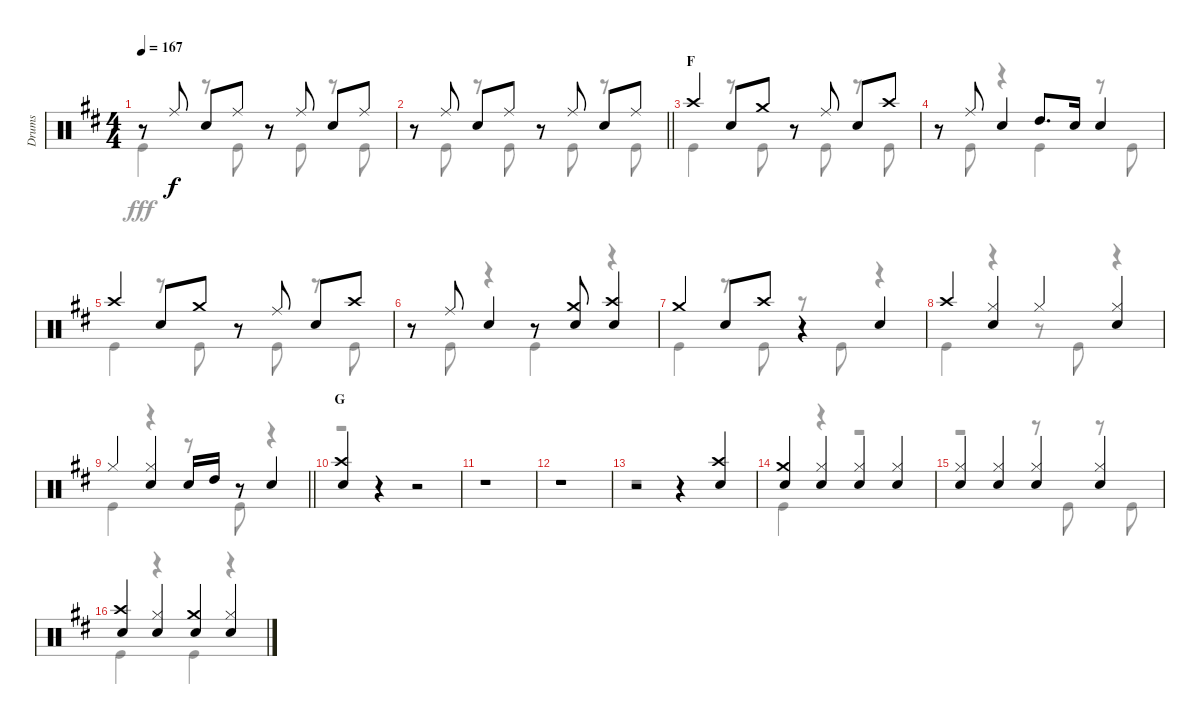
\track ("Drums" "Drums") {instrument percussion}
\staff {score}
\articulation defaults
\voice
\ts (4 4)
\tempo 167
\clef neutral
\ks d
r.8{dy f} "Ride (middle)".8 "Snare (hit) 2".8 "Ride (middle)".8 r.8 "Ride (middle)".8 "Snare (hit) 2".8 "Ride (middle)".8 |
\barLineRight lightlight
r.8 "Ride (middle)".8 "Snare (hit) 2".8 "Ride (middle)".8 r.8 "Ride (middle)".8 "Snare (hit) 2".8 "Ride (middle)".8 |
\section ("" "F")
"Crash high (hit)".4 "Snare (hit) 2".8 "Crash medium (hit)".8 r.8 "Ride (middle)".8 "Snare (hit) 2".8 "Crash high (hit)".8 |
r.8 "Ride (middle)".8 "Snare (hit) 2".4 "High Tom (hit)".8{d} "Snare (hit) 2".16 "Snare (hit) 2".4 |
"Crash high (hit)".4 "Snare (hit) 2".8 "Crash medium (hit)".8 r.8 "Ride (middle)".8 "Snare (hit) 2".8 "Crash high (hit)".8 |
r.8 "Ride (middle)".8 "Snare (hit) 2".4 r.8 ("Crash medium (hit)" "Snare (hit) 2").8 ("Crash high (hit)" "Snare (hit) 2").4 |
"Crash medium (hit)".4 "Snare (hit) 2".8 "Crash high (hit)".8 r.4 "Snare (hit) 2".4 |
"Crash high (hit)".4 ("Hi-Hat (closed)" "Snare (hit) 2").4 "Hi-Hat (closed)".4 ("Hi-Hat (closed)" "Snare (hit) 2").4 |
\barLineRight lightlight "Hi-Hat (closed)".4
("Hi-Hat (closed)" "Snare (hit) 2").4 "Snare (hit) 2".16 "High Tom (hit)".16 r.8 "Snare (hit) 2".4 |
\section ("" "G")
("Crash high (hit)" "Snare (hit) 2").4 r.4 r.2 |
r.1 |
r.1 |
r.2 r.4 ("Crash high (hit)" "Snare (hit) 2").4 |
("Crash medium (hit)" "Snare (hit) 2").4 ("Hi-Hat (closed)" "Snare (hit) 2").4 ("Hi-Hat (closed)" "Snare (hit) 2").4 ("Hi-Hat (closed)" "Snare (hit) 2").4 |
("Hi-Hat (closed)" "Snare (hit) 2").4 ("Hi-Hat (closed)" "Snare (hit) 2").4 ("Hi-Hat (closed)" "Snare (hit) 2").4 ("Hi-Hat (closed)" "Snare (hit) 2").4 |
("Crash high (hit)" "Snare (hit) 2").4 ("Hi-Hat (closed)" "Snare (hit) 2").4 ("Crash medium (hit)" "Snare (hit) 2").4 ("Hi-Hat (closed)" "Snare (hit) 2").4
\voice
\clef neutral
\ottava regular
\simile none
\ks d "Kick (hit)".4{dy fff}
r.8 "Kick (hit)".8 r.8 "Kick (hit)".8 r.8 "Kick (hit)".8 |
\barLineRight lightlight
r.8 "Kick (hit)".8 r.8 "Kick (hit)".8 r.8 "Kick (hit)".8 r.8 "Kick (hit)".8 |
"Kick (hit)".4 r.8 "Kick (hit)".8 r.8 "Kick (hit)".8 r.8 "Kick (hit)".8 |
r.8 "Kick (hit)".8 r.4 "Kick (hit)".4 r.8 "Kick (hit)".8 |
"Kick (hit)".4 r.8 "Kick (hit)".8 r.8 "Kick (hit)".8 r.8 "Kick (hit)".8 |
r.8 "Kick (hit)".8 r.4 "Kick (hit)".4 r.4 |
"Kick (hit)".4 r.8 "Kick (hit)".8 r.8 "Kick (hit)".8 r.4 |
"Kick (hit)".4 r.4 r.8 "Kick (hit)".8 r.4 |
\barLineRight lightlight "Kick (hit)".4
r.4 r.8 "Kick (hit)".8 r.4 |
r.1 |
r.1 |
r.1 |
r.1 |
"Kick (hit)".4 r.4 r.2 |
r.2 r.8 "Kick (hit)".8 r.8 "Kick (hit)".8 |
"Kick (hit)".4 r.4 "Kick (hit)".4 r.4
